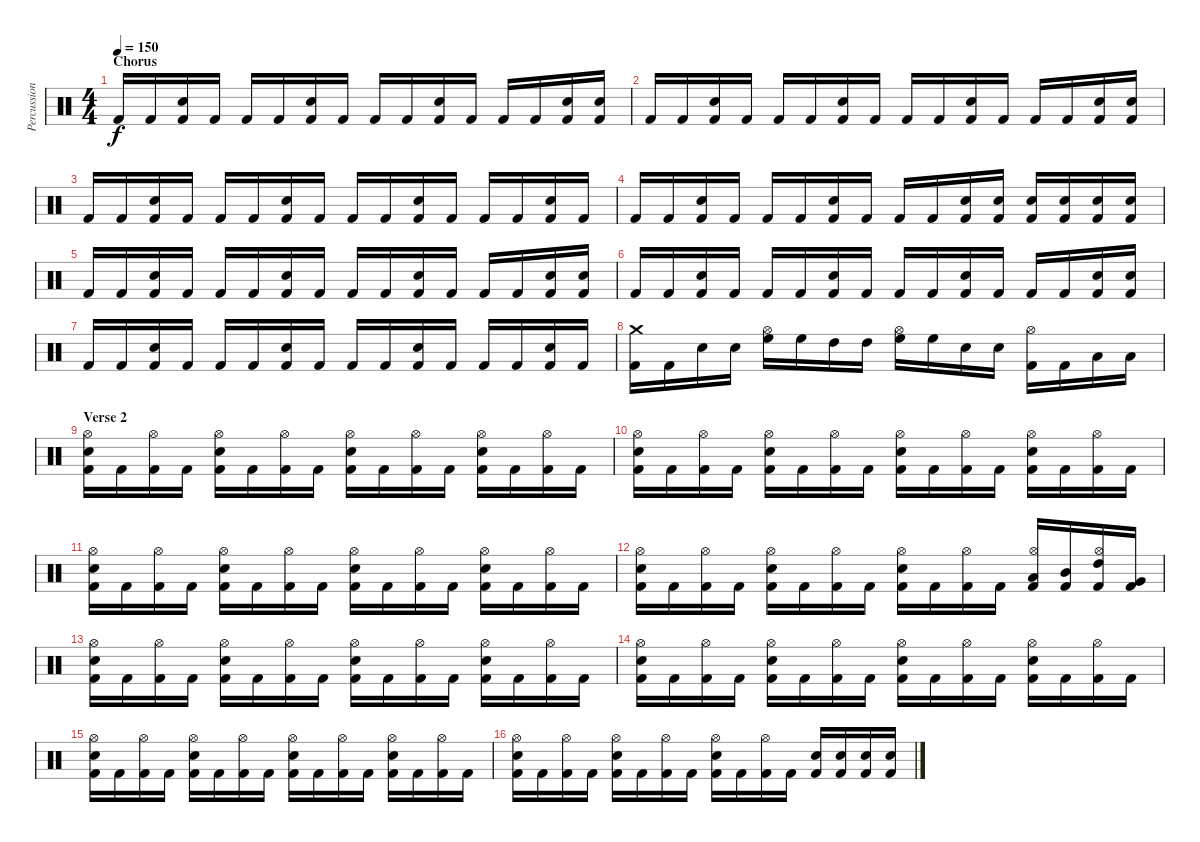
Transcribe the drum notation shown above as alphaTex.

\track ("Percussion" "Percussion") {instrument percussion}
\staff {score}
\articulation defaults
\ts (4 4)
\section ("" "Chorus")
\tempo 150
\clef neutral
\ks c "Kick (hit) 2".16{dy f} "Kick (hit) 2".16
("Snare (hit) 2" "Kick (hit) 2").16 "Kick (hit) 2".16 "Kick (hit) 2".16 "Kick (hit) 2".16 ("Snare (hit) 2" "Kick (hit) 2").16 "Kick (hit) 2".16 "Kick (hit) 2".16 "Kick (hit) 2".16 ("Snare (hit) 2" "Kick (hit) 2").16 "Kick (hit) 2".16 "Kick (hit) 2".16 "Kick (hit) 2".16 ("Snare (hit) 2" "Kick (hit) 2").16 ("Snare (hit) 2" "Kick (hit) 2").16 |
"Kick (hit) 2".16 "Kick (hit) 2".16 ("Snare (hit) 2" "Kick (hit) 2").16 "Kick (hit) 2".16 "Kick (hit) 2".16 "Kick (hit) 2".16 ("Snare (hit) 2" "Kick (hit) 2").16 "Kick (hit) 2".16 "Kick (hit) 2".16 "Kick (hit) 2".16 ("Snare (hit) 2" "Kick (hit) 2").16 "Kick (hit) 2".16 "Kick (hit) 2".16 "Kick (hit) 2".16 ("Snare (hit) 2" "Kick (hit) 2").16 ("Snare (hit) 2" "Kick (hit) 2").16 |
"Kick (hit) 2".16 "Kick (hit) 2".16 ("Snare (hit) 2" "Kick (hit) 2").16 "Kick (hit) 2".16 "Kick (hit) 2".16 "Kick (hit) 2".16 ("Snare (hit) 2" "Kick (hit) 2").16 "Kick (hit) 2".16 "Kick (hit) 2".16 "Kick (hit) 2".16 ("Snare (hit) 2" "Kick (hit) 2").16 "Kick (hit) 2".16 "Kick (hit) 2".16 "Kick (hit) 2".16 ("Snare (hit) 2" "Kick (hit) 2").16 "Kick (hit) 2".16 |
"Kick (hit) 2".16 "Kick (hit) 2".16 ("Snare (hit) 2" "Kick (hit) 2").16 "Kick (hit) 2".16 "Kick (hit) 2".16 "Kick (hit) 2".16 ("Snare (hit) 2" "Kick (hit) 2").16 "Kick (hit) 2".16 "Kick (hit) 2".16 "Kick (hit) 2".16 ("Snare (hit) 2" "Kick (hit) 2").16 ("Snare (hit) 2" "Kick (hit) 2").16 ("Snare (hit) 2" "Kick (hit) 2").16 ("Snare (hit) 2" "Kick (hit) 2").16 ("Snare (hit) 2" "Kick (hit) 2").16 ("Snare (hit) 2" "Kick (hit) 2").16 |
"Kick (hit) 2".16 "Kick (hit) 2".16 ("Snare (hit) 2" "Kick (hit) 2").16 "Kick (hit) 2".16 "Kick (hit) 2".16 "Kick (hit) 2".16 ("Snare (hit) 2" "Kick (hit) 2").16 "Kick (hit) 2".16 "Kick (hit) 2".16 "Kick (hit) 2".16 ("Snare (hit) 2" "Kick (hit) 2").16 "Kick (hit) 2".16 "Kick (hit) 2".16 "Kick (hit) 2".16 ("Snare (hit) 2" "Kick (hit) 2").16 ("Snare (hit) 2" "Kick (hit) 2").16 |
"Kick (hit) 2".16 "Kick (hit) 2".16 ("Snare (hit) 2" "Kick (hit) 2").16 "Kick (hit) 2".16 "Kick (hit) 2".16 "Kick (hit) 2".16 ("Snare (hit) 2" "Kick (hit) 2").16 "Kick (hit) 2".16 "Kick (hit) 2".16 "Kick (hit) 2".16 ("Snare (hit) 2" "Kick (hit) 2").16 "Kick (hit) 2".16 "Kick (hit) 2".16 "Kick (hit) 2".16 ("Snare (hit) 2" "Kick (hit) 2").16 ("Snare (hit) 2" "Kick (hit) 2").16 |
"Kick (hit) 2".16 "Kick (hit) 2".16 ("Snare (hit) 2" "Kick (hit) 2").16 "Kick (hit) 2".16 "Kick (hit) 2".16 "Kick (hit) 2".16 ("Snare (hit) 2" "Kick (hit) 2").16 "Kick (hit) 2".16 "Kick (hit) 2".16 "Kick (hit) 2".16 ("Snare (hit) 2" "Kick (hit) 2").16 "Kick (hit) 2".16 "Kick (hit) 2".16 "Kick (hit) 2".16 ("Snare (hit) 2" "Kick (hit) 2").16 "Kick (hit) 2".16 |
("Kick (hit) 2" "Crash medium (hit)").16 "Kick (hit) 2".16 "Snare (hit) 2".16 "Snare (hit) 2".16 ("High Floor Tom (hit)" "Hi-Hat (open)").16 "High Floor Tom (hit)".16 "High Tom (hit)".16 "High Tom (hit)".16 ("High Floor Tom (hit)" "Hi-Hat (open)").16 "High Floor Tom (hit)".16 "Snare (hit) 2".16 "Snare (hit) 2".16 ("Kick (hit) 2" "Hi-Hat (open)").16 "Kick (hit) 2".16 "Low Tom (hit)".16 "Low Tom (hit)".16 |
\section ("" "Verse 2")
("Hi-Hat (open)" "Snare (hit) 2" "Kick (hit) 2").16 "Kick (hit) 2".16 ("Hi-Hat (open)" "Kick (hit) 2").16 "Kick (hit) 2".16 ("Hi-Hat (open)" "Snare (hit) 2" "Kick (hit) 2").16 "Kick (hit) 2".16 ("Hi-Hat (open)" "Kick (hit) 2").16 "Kick (hit) 2".16 ("Hi-Hat (open)" "Snare (hit) 2" "Kick (hit) 2").16 "Kick (hit) 2".16 ("Hi-Hat (open)" "Kick (hit) 2").16 "Kick (hit) 2".16 ("Hi-Hat (open)" "Snare (hit) 2" "Kick (hit) 2").16 "Kick (hit) 2".16 ("Hi-Hat (open)" "Kick (hit) 2").16 "Kick (hit) 2".16 |
("Hi-Hat (open)" "Snare (hit) 2" "Kick (hit) 2").16 "Kick (hit) 2".16 ("Hi-Hat (open)" "Kick (hit) 2").16 "Kick (hit) 2".16 ("Hi-Hat (open)" "Snare (hit) 2" "Kick (hit) 2").16 "Kick (hit) 2".16 ("Hi-Hat (open)" "Kick (hit) 2").16 "Kick (hit) 2".16 ("Hi-Hat (open)" "Snare (hit) 2" "Kick (hit) 2").16 "Kick (hit) 2".16 ("Hi-Hat (open)" "Kick (hit) 2").16 "Kick (hit) 2".16 ("Hi-Hat (open)" "Snare (hit) 2" "Kick (hit) 2").16 "Kick (hit) 2".16 ("Hi-Hat (open)" "Kick (hit) 2").16 "Kick (hit) 2".16 |
("Hi-Hat (open)" "Snare (hit) 2" "Kick (hit) 2").16 "Kick (hit) 2".16 ("Hi-Hat (open)" "Kick (hit) 2").16 "Kick (hit) 2".16 ("Hi-Hat (open)" "Snare (hit) 2" "Kick (hit) 2").16 "Kick (hit) 2".16 ("Hi-Hat (open)" "Kick (hit) 2").16 "Kick (hit) 2".16 ("Hi-Hat (open)" "Snare (hit) 2" "Kick (hit) 2").16 "Kick (hit) 2".16 ("Hi-Hat (open)" "Kick (hit) 2").16 "Kick (hit) 2".16 ("Hi-Hat (open)" "Snare (hit) 2" "Kick (hit) 2").16 "Kick (hit) 2".16 ("Hi-Hat (open)" "Kick (hit) 2").16 "Kick (hit) 2".16 |
("Hi-Hat (open)" "Snare (hit) 2" "Kick (hit) 2").16 "Kick (hit) 2".16 ("Hi-Hat (open)" "Kick (hit) 2").16 "Kick (hit) 2".16 ("Hi-Hat (open)" "Snare (hit) 2" "Kick (hit) 2").16 "Kick (hit) 2".16 ("Hi-Hat (open)" "Kick (hit) 2").16 "Kick (hit) 2".16 ("Hi-Hat (open)" "Snare (hit) 2" "Kick (hit) 2").16 "Kick (hit) 2".16 ("Hi-Hat (open)" "Kick (hit) 2").16 "Kick (hit) 2".16 ("Hi-Hat (open)" "Low Tom (hit)" "Kick (hit) 2").16 ("Mid Tom (hit)" "Kick (hit) 2").16 ("Hi-Hat (open)" "High Tom (hit)" "Kick (hit) 2").16 ("Very Low Tom (hit)" "Kick (hit) 2").16 |
("Hi-Hat (open)" "Snare (hit) 2" "Kick (hit) 2").16 "Kick (hit) 2".16 ("Hi-Hat (open)" "Kick (hit) 2").16 "Kick (hit) 2".16 ("Hi-Hat (open)" "Snare (hit) 2" "Kick (hit) 2").16 "Kick (hit) 2".16 ("Hi-Hat (open)" "Kick (hit) 2").16 "Kick (hit) 2".16 ("Hi-Hat (open)" "Snare (hit) 2" "Kick (hit) 2").16 "Kick (hit) 2".16 ("Hi-Hat (open)" "Kick (hit) 2").16 "Kick (hit) 2".16 ("Hi-Hat (open)" "Snare (hit) 2" "Kick (hit) 2").16 "Kick (hit) 2".16 ("Hi-Hat (open)" "Kick (hit) 2").16 "Kick (hit) 2".16 |
("Hi-Hat (open)" "Snare (hit) 2" "Kick (hit) 2").16 "Kick (hit) 2".16 ("Hi-Hat (open)" "Kick (hit) 2").16 "Kick (hit) 2".16 ("Hi-Hat (open)" "Snare (hit) 2" "Kick (hit) 2").16 "Kick (hit) 2".16 ("Hi-Hat (open)" "Kick (hit) 2").16 "Kick (hit) 2".16 ("Hi-Hat (open)" "Snare (hit) 2" "Kick (hit) 2").16 "Kick (hit) 2".16 ("Hi-Hat (open)" "Kick (hit) 2").16 "Kick (hit) 2".16 ("Hi-Hat (open)" "Snare (hit) 2" "Kick (hit) 2").16 "Kick (hit) 2".16 ("Hi-Hat (open)" "Kick (hit) 2").16 "Kick (hit) 2".16 |
("Hi-Hat (open)" "Snare (hit) 2" "Kick (hit) 2").16 "Kick (hit) 2".16 ("Hi-Hat (open)" "Kick (hit) 2").16 "Kick (hit) 2".16 ("Hi-Hat (open)" "Snare (hit) 2" "Kick (hit) 2").16 "Kick (hit) 2".16 ("Hi-Hat (open)" "Kick (hit) 2").16 "Kick (hit) 2".16 ("Hi-Hat (open)" "Snare (hit) 2" "Kick (hit) 2").16 "Kick (hit) 2".16 ("Hi-Hat (open)" "Kick (hit) 2").16 "Kick (hit) 2".16 ("Hi-Hat (open)" "Snare (hit) 2" "Kick (hit) 2").16 "Kick (hit) 2".16 ("Hi-Hat (open)" "Kick (hit) 2").16 "Kick (hit) 2".16 |
("Hi-Hat (open)" "Snare (hit) 2" "Kick (hit) 2").16 "Kick (hit) 2".16 ("Hi-Hat (open)" "Kick (hit) 2").16 "Kick (hit) 2".16 ("Hi-Hat (open)" "Snare (hit) 2" "Kick (hit) 2").16 "Kick (hit) 2".16 ("Hi-Hat (open)" "Kick (hit) 2").16 "Kick (hit) 2".16 ("Hi-Hat (open)" "Snare (hit) 2" "Kick (hit) 2").16 "Kick (hit) 2".16 ("Hi-Hat (open)" "Kick (hit) 2").16 "Kick (hit) 2".16 ("Snare (hit) 2" "Kick (hit) 2").16 ("Snare (hit) 2" "Kick (hit) 2").16 ("Snare (hit) 2" "Kick (hit) 2").16 ("Snare (hit) 2" "Kick (hit) 2").16
